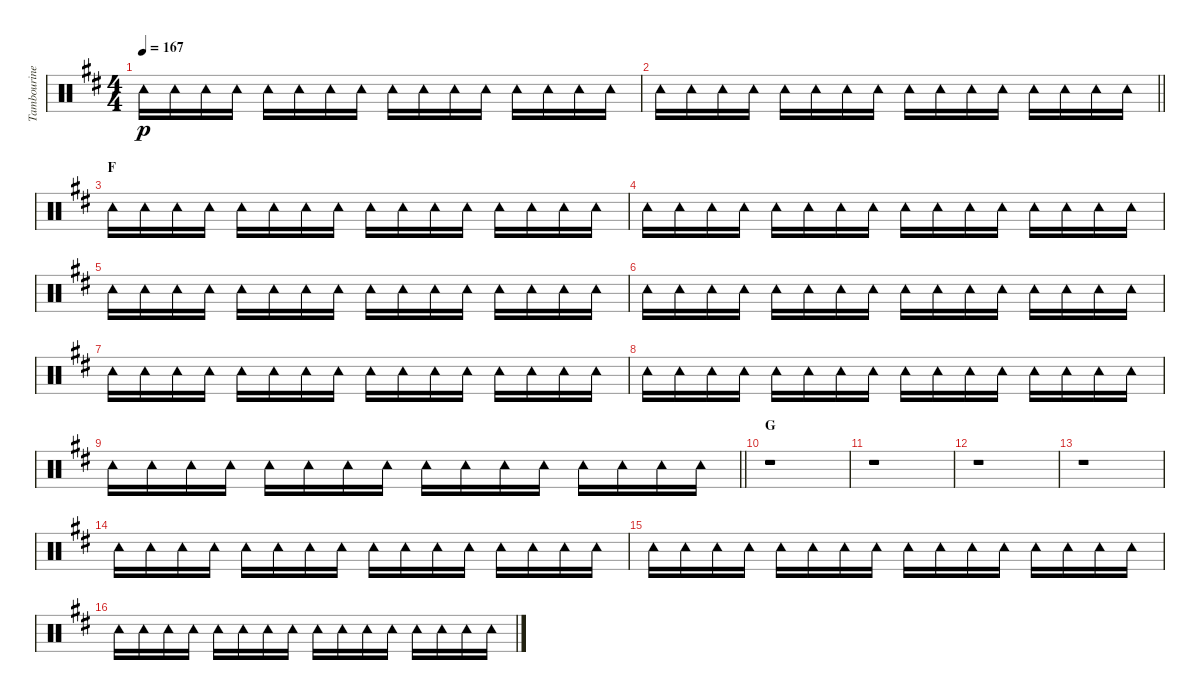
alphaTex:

\track ("Tambourine" "Tambourine") {instrument percussion}
\staff {score}
\articulation defaults
\ts (4 4)
\tempo 167
\clef neutral
\ks d "Tambourine (hit)".16{dy p} "Tambourine (hit)".16 "Tambourine (hit)".16 "Tambourine (hit)".16 "Tambourine (hit)".16 "Tambourine (hit)".16 "Tambourine (hit)".16 "Tambourine (hit)".16 "Tambourine (hit)".16 "Tambourine (hit)".16 "Tambourine (hit)".16 "Tambourine (hit)".16 "Tambourine (hit)".16 "Tambourine (hit)".16 "Tambourine (hit)".16 "Tambourine (hit)".16
|
\barLineRight lightlight "Tambourine (hit)".16 "Tambourine (hit)".16 "Tambourine (hit)".16 "Tambourine (hit)".16 "Tambourine (hit)".16 "Tambourine (hit)".16 "Tambourine (hit)".16 "Tambourine (hit)".16 "Tambourine (hit)".16 "Tambourine (hit)".16 "Tambourine (hit)".16 "Tambourine (hit)".16 "Tambourine (hit)".16 "Tambourine (hit)".16 "Tambourine (hit)".16 "Tambourine (hit)".16
|
\section ("" "F")
"Tambourine (hit)".16 "Tambourine (hit)".16 "Tambourine (hit)".16 "Tambourine (hit)".16 "Tambourine (hit)".16 "Tambourine (hit)".16 "Tambourine (hit)".16 "Tambourine (hit)".16 "Tambourine (hit)".16 "Tambourine (hit)".16 "Tambourine (hit)".16 "Tambourine (hit)".16 "Tambourine (hit)".16 "Tambourine (hit)".16 "Tambourine (hit)".16 "Tambourine (hit)".16 |
"Tambourine (hit)".16 "Tambourine (hit)".16 "Tambourine (hit)".16 "Tambourine (hit)".16 "Tambourine (hit)".16 "Tambourine (hit)".16 "Tambourine (hit)".16 "Tambourine (hit)".16 "Tambourine (hit)".16 "Tambourine (hit)".16 "Tambourine (hit)".16 "Tambourine (hit)".16 "Tambourine (hit)".16 "Tambourine (hit)".16 "Tambourine (hit)".16 "Tambourine (hit)".16 |
"Tambourine (hit)".16 "Tambourine (hit)".16 "Tambourine (hit)".16 "Tambourine (hit)".16 "Tambourine (hit)".16 "Tambourine (hit)".16 "Tambourine (hit)".16 "Tambourine (hit)".16 "Tambourine (hit)".16 "Tambourine (hit)".16 "Tambourine (hit)".16 "Tambourine (hit)".16 "Tambourine (hit)".16 "Tambourine (hit)".16 "Tambourine (hit)".16 "Tambourine (hit)".16 |
"Tambourine (hit)".16 "Tambourine (hit)".16 "Tambourine (hit)".16 "Tambourine (hit)".16 "Tambourine (hit)".16 "Tambourine (hit)".16 "Tambourine (hit)".16 "Tambourine (hit)".16 "Tambourine (hit)".16 "Tambourine (hit)".16 "Tambourine (hit)".16 "Tambourine (hit)".16 "Tambourine (hit)".16 "Tambourine (hit)".16 "Tambourine (hit)".16 "Tambourine (hit)".16 |
"Tambourine (hit)".16 "Tambourine (hit)".16 "Tambourine (hit)".16 "Tambourine (hit)".16 "Tambourine (hit)".16 "Tambourine (hit)".16 "Tambourine (hit)".16 "Tambourine (hit)".16 "Tambourine (hit)".16 "Tambourine (hit)".16 "Tambourine (hit)".16 "Tambourine (hit)".16 "Tambourine (hit)".16 "Tambourine (hit)".16 "Tambourine (hit)".16 "Tambourine (hit)".16 |
"Tambourine (hit)".16 "Tambourine (hit)".16 "Tambourine (hit)".16 "Tambourine (hit)".16 "Tambourine (hit)".16 "Tambourine (hit)".16 "Tambourine (hit)".16 "Tambourine (hit)".16 "Tambourine (hit)".16 "Tambourine (hit)".16 "Tambourine (hit)".16 "Tambourine (hit)".16 "Tambourine (hit)".16 "Tambourine (hit)".16 "Tambourine (hit)".16 "Tambourine (hit)".16 |
\barLineRight lightlight "Tambourine (hit)".16 "Tambourine (hit)".16 "Tambourine (hit)".16 "Tambourine (hit)".16 "Tambourine (hit)".16 "Tambourine (hit)".16 "Tambourine (hit)".16 "Tambourine (hit)".16 "Tambourine (hit)".16 "Tambourine (hit)".16 "Tambourine (hit)".16 "Tambourine (hit)".16 "Tambourine (hit)".16 "Tambourine (hit)".16 "Tambourine (hit)".16 "Tambourine (hit)".16
|
\section ("" "G")
r.1 |
r.1 |
r.1 |
r.1 |
"Tambourine (hit)".16 "Tambourine (hit)".16 "Tambourine (hit)".16 "Tambourine (hit)".16 "Tambourine (hit)".16 "Tambourine (hit)".16 "Tambourine (hit)".16 "Tambourine (hit)".16 "Tambourine (hit)".16 "Tambourine (hit)".16 "Tambourine (hit)".16 "Tambourine (hit)".16 "Tambourine (hit)".16 "Tambourine (hit)".16 "Tambourine (hit)".16 "Tambourine (hit)".16 |
"Tambourine (hit)".16 "Tambourine (hit)".16 "Tambourine (hit)".16 "Tambourine (hit)".16 "Tambourine (hit)".16 "Tambourine (hit)".16 "Tambourine (hit)".16 "Tambourine (hit)".16 "Tambourine (hit)".16 "Tambourine (hit)".16 "Tambourine (hit)".16 "Tambourine (hit)".16 "Tambourine (hit)".16 "Tambourine (hit)".16 "Tambourine (hit)".16 "Tambourine (hit)".16 |
"Tambourine (hit)".16 "Tambourine (hit)".16 "Tambourine (hit)".16 "Tambourine (hit)".16 "Tambourine (hit)".16 "Tambourine (hit)".16 "Tambourine (hit)".16 "Tambourine (hit)".16 "Tambourine (hit)".16 "Tambourine (hit)".16 "Tambourine (hit)".16 "Tambourine (hit)".16 "Tambourine (hit)".16 "Tambourine (hit)".16 "Tambourine (hit)".16 "Tambourine (hit)".16
